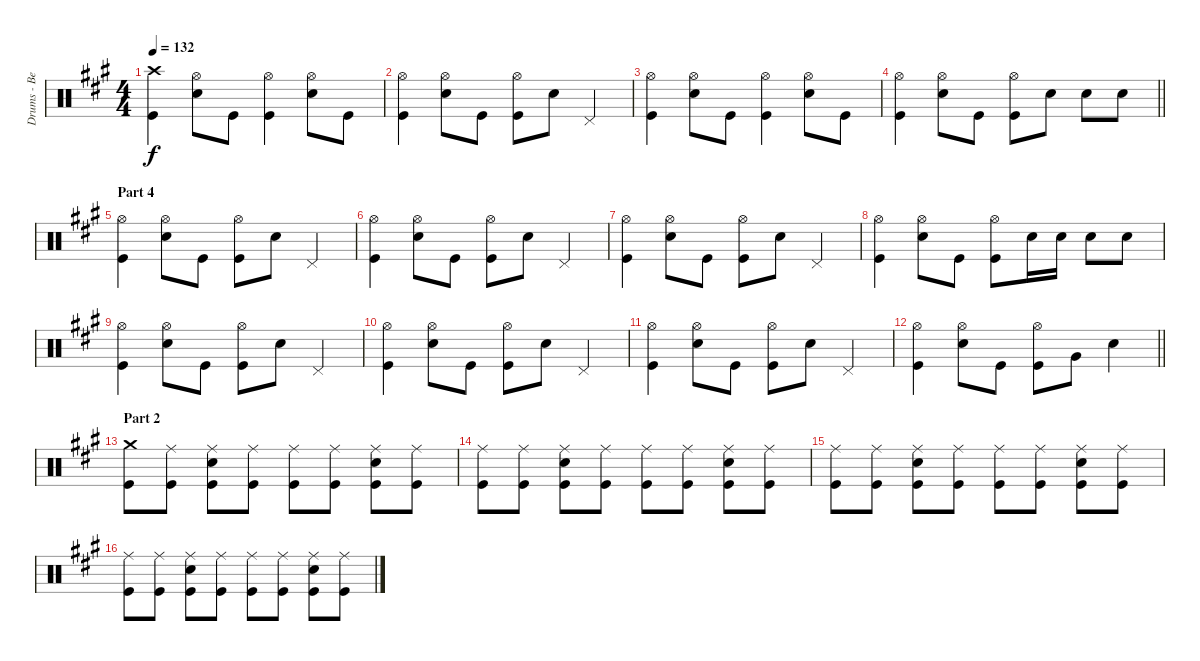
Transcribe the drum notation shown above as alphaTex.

\track ("Drums - Ben Johnston" "Drums - Be") {instrument percussion}
\staff {score}
\articulation defaults
\ts (4 4)
\tempo 132
\clef neutral
\ks a
("Crash high (hit)" "Kick (hit)").4{dy f} ("Hi-Hat (open)" "Snare (hit) 2").8 "Kick (hit)".8 ("Hi-Hat (open)" "Kick (hit)").4 ("Hi-Hat (open)" "Snare (hit) 2").8 "Kick (hit)".8 |
("Hi-Hat (open)" "Kick (hit)").4 ("Hi-Hat (open)" "Snare (hit) 2").8 "Kick (hit)".8 ("Hi-Hat (open)" "Kick (hit)").8 "Snare (hit) 2".8 "Pedal Hi-Hat (hit)".4 |
("Hi-Hat (open)" "Kick (hit)").4 ("Hi-Hat (open)" "Snare (hit) 2").8 "Kick (hit)".8 ("Hi-Hat (open)" "Kick (hit)").4 ("Hi-Hat (open)" "Snare (hit) 2").8 "Kick (hit)".8 |
\barLineRight lightlight
("Hi-Hat (open)" "Kick (hit)").4 ("Hi-Hat (open)" "Snare (hit) 2").8 "Kick (hit)".8 ("Hi-Hat (open)" "Kick (hit)").8 "Snare (hit) 2".8 "Snare (hit) 2".8 "Snare (hit) 2".8 |
\section ("" "Part 4")
("Hi-Hat (open)" "Kick (hit)").4 ("Hi-Hat (open)" "Snare (hit) 2").8 "Kick (hit)".8 ("Hi-Hat (open)" "Kick (hit)").8 "Snare (hit) 2".8 "Pedal Hi-Hat (hit)".4 |
("Hi-Hat (open)" "Kick (hit)").4 ("Hi-Hat (open)" "Snare (hit) 2").8 "Kick (hit)".8 ("Hi-Hat (open)" "Kick (hit)").8 "Snare (hit) 2".8 "Pedal Hi-Hat (hit)".4 |
("Hi-Hat (open)" "Kick (hit)").4 ("Hi-Hat (open)" "Snare (hit) 2").8 "Kick (hit)".8 ("Hi-Hat (open)" "Kick (hit)").8 "Snare (hit) 2".8 "Pedal Hi-Hat (hit)".4 |
("Hi-Hat (open)" "Kick (hit)").4 ("Hi-Hat (open)" "Snare (hit) 2").8 "Kick (hit)".8 ("Hi-Hat (open)" "Kick (hit)").8 "Snare (hit) 2".16 "Snare (hit) 2".16 "Snare (hit) 2".8 "Snare (hit) 2".8 |
("Hi-Hat (open)" "Kick (hit)").4 ("Hi-Hat (open)" "Snare (hit) 2").8 "Kick (hit)".8 ("Hi-Hat (open)" "Kick (hit)").8 "Snare (hit) 2".8 "Pedal Hi-Hat (hit)".4 |
("Hi-Hat (open)" "Kick (hit)").4 ("Hi-Hat (open)" "Snare (hit) 2").8 "Kick (hit)".8 ("Hi-Hat (open)" "Kick (hit)").8 "Snare (hit) 2".8 "Pedal Hi-Hat (hit)".4 |
("Hi-Hat (open)" "Kick (hit)").4 ("Hi-Hat (open)" "Snare (hit) 2").8 "Kick (hit)".8 ("Hi-Hat (open)" "Kick (hit)").8 "Snare (hit) 2".8 "Pedal Hi-Hat (hit)".4 |
\barLineRight lightlight
("Hi-Hat (open)" "Kick (hit)").4 ("Hi-Hat (open)" "Snare (hit) 2").8 "Kick (hit)".8 ("Hi-Hat (open)" "Kick (hit)").8 "Very Low Tom (hit)".8 "Snare (hit) 2".4 |
\section ("" "Part 2")
("Crash medium (hit)" "Kick (hit)").8{volume 11} ("Ride (middle)" "Kick (hit)").8 ("Ride (middle)" "Snare (hit) 2" "Kick (hit)").8 ("Ride (middle)" "Kick (hit)").8 ("Ride (middle)" "Kick (hit)").8 ("Ride (middle)" "Kick (hit)").8 ("Ride (middle)" "Snare (hit) 2" "Kick (hit)").8 ("Ride (middle)" "Kick (hit)").8 |
("Ride (middle)" "Kick (hit)").8 ("Ride (middle)" "Kick (hit)").8 ("Ride (middle)" "Snare (hit) 2" "Kick (hit)").8 ("Ride (middle)" "Kick (hit)").8 ("Ride (middle)" "Kick (hit)").8 ("Ride (middle)" "Kick (hit)").8 ("Ride (middle)" "Snare (hit) 2" "Kick (hit)").8 ("Ride (middle)" "Kick (hit)").8 |
("Ride (middle)" "Kick (hit)").8 ("Ride (middle)" "Kick (hit)").8 ("Ride (middle)" "Snare (hit) 2" "Kick (hit)").8 ("Ride (middle)" "Kick (hit)").8 ("Ride (middle)" "Kick (hit)").8 ("Ride (middle)" "Kick (hit)").8 ("Ride (middle)" "Snare (hit) 2" "Kick (hit)").8 ("Ride (middle)" "Kick (hit)").8 |
("Ride (middle)" "Kick (hit)").8 ("Ride (middle)" "Kick (hit)").8 ("Ride (middle)" "Snare (hit) 2" "Kick (hit)").8 ("Ride (middle)" "Kick (hit)").8 ("Ride (middle)" "Kick (hit)").8 ("Ride (middle)" "Kick (hit)").8 ("Ride (middle)" "Snare (hit) 2" "Kick (hit)").8 ("Ride (middle)" "Kick (hit)").8
